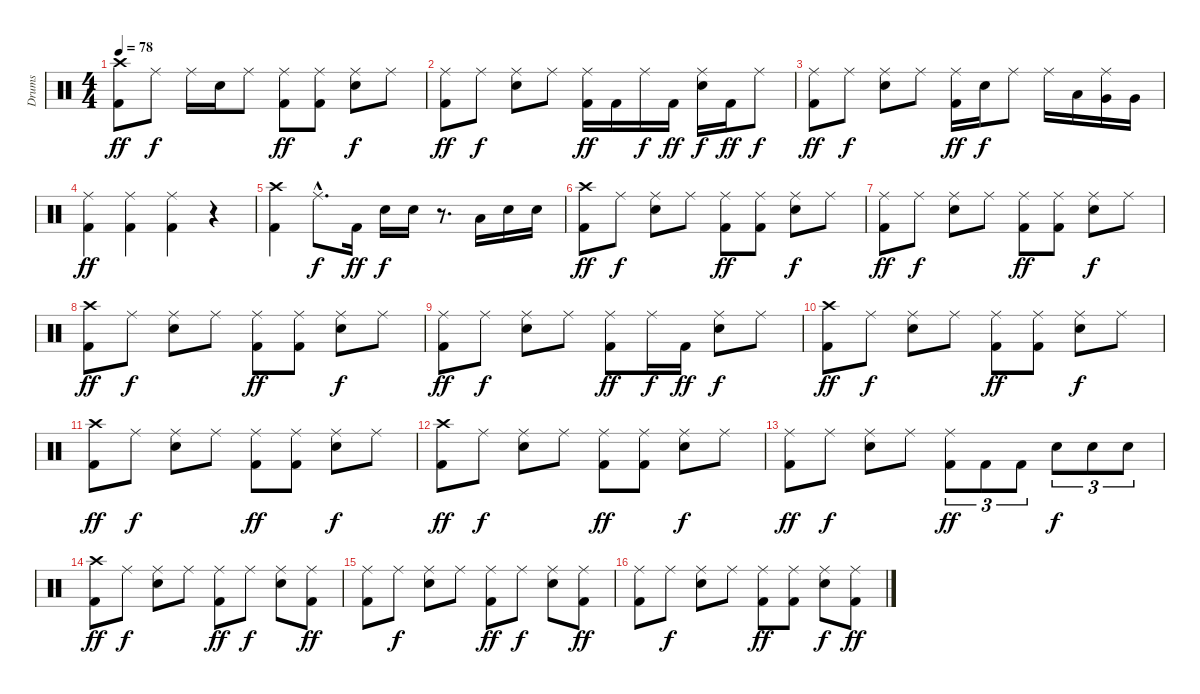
\track ("Drums" "Drums") {instrument percussion}
\staff {score}
\articulation defaults
\ts (4 4)
\tempo 78
\clef neutral
\ks c
("Crash high (hit)" "Kick (hit) 2").8{dy ff} "Ride (middle)".8{dy f} "Ride (middle)".16 "Snare (hit) 2".16 "Ride (middle)".8 ("Ride (middle)" "Kick (hit) 2").8{dy ff} ("Ride (middle)" "Kick (hit) 2").8 ("Ride (middle)" "Snare (hit) 2").8{dy f} "Ride (middle)".8 |
("Ride (middle)" "Kick (hit) 2").8{dy ff} "Ride (middle)".8{dy f} ("Ride (middle)" "Snare (hit) 2").8 "Ride (middle)".8 ("Ride (middle)" "Kick (hit) 2").16{dy ff} "Kick (hit) 2".16 "Ride (middle)".16{dy f} "Kick (hit) 2".16{dy ff} ("Ride (middle)" "Snare (hit) 2").16{dy f} "Kick (hit) 2".16{dy ff} "Ride (middle)".8{dy f} |
("Ride (middle)" "Kick (hit) 2").8{dy ff} "Ride (middle)".8{dy f} ("Ride (middle)" "Snare (hit) 2").8 "Ride (middle)".8 ("Ride (middle)" "Kick (hit) 2").16{dy ff} "Snare (hit) 2".16{dy f} "Ride (middle)".8 "Ride (middle)".16 "Low Tom (hit)".16 ("Ride (middle)" "Very Low Tom (hit)").16 "Very Low Tom (hit)".16 |
("Ride (middle)" "Kick (hit) 2").4{dy ff} ("Ride (middle)" "Kick (hit) 2").4 ("Ride (middle)" "Kick (hit) 2").4 r.4 |
("Crash high (hit)" "Kick (hit) 2").4 "Ride (middle)"{hac}.8{d dy f} "Kick (hit) 2".16{dy ff} "Snare (hit) 2".16{dy f} "Snare (hit) 2".16 r.8{d} "Low Tom (hit)".16 "Snare (hit) 2".16 "Snare (hit) 2".16 |
("Crash high (hit)" "Kick (hit) 2").8{dy ff} "Ride (middle)".8{dy f} ("Ride (middle)" "Snare (hit) 2").8 "Ride (middle)".8 ("Ride (middle)" "Kick (hit) 2").8{dy ff} ("Ride (middle)" "Kick (hit) 2").8 ("Ride (middle)" "Snare (hit) 2").8{dy f} "Ride (middle)".8 |
("Ride (middle)" "Kick (hit) 2").8{dy ff} "Ride (middle)".8{dy f} ("Ride (middle)" "Snare (hit) 2").8 "Ride (middle)".8 ("Ride (middle)" "Kick (hit) 2").8{dy ff} ("Ride (middle)" "Kick (hit) 2").8 ("Ride (middle)" "Snare (hit) 2").8{dy f} "Ride (middle)".8 |
("Crash high (hit)" "Kick (hit) 2").8{dy ff} "Ride (middle)".8{dy f} ("Ride (middle)" "Snare (hit) 2").8 "Ride (middle)".8 ("Ride (middle)" "Kick (hit) 2").8{dy ff} ("Ride (middle)" "Kick (hit) 2").8 ("Ride (middle)" "Snare (hit) 2").8{dy f} "Ride (middle)".8 |
("Ride (middle)" "Kick (hit) 2").8{dy ff} "Ride (middle)".8{dy f} ("Ride (middle)" "Snare (hit) 2").8 "Ride (middle)".8 ("Ride (middle)" "Kick (hit) 2").8{dy ff} "Ride (middle)".16{dy f} "Kick (hit) 2".16{dy ff} ("Ride (middle)" "Snare (hit) 2").8{dy f} "Ride (middle)".8 |
("Crash high (hit)" "Kick (hit) 2").8{dy ff} "Ride (middle)".8{dy f} ("Ride (middle)" "Snare (hit) 2").8 "Ride (middle)".8 ("Ride (middle)" "Kick (hit) 2").8{dy ff} ("Ride (middle)" "Kick (hit) 2").8 ("Ride (middle)" "Snare (hit) 2").8{dy f} "Ride (middle)".8 |
("Crash high (hit)" "Kick (hit) 2").8{dy ff} "Ride (middle)".8{dy f} ("Ride (middle)" "Snare (hit) 2").8 "Ride (middle)".8 ("Ride (middle)" "Kick (hit) 2").8{dy ff} ("Ride (middle)" "Kick (hit) 2").8 ("Ride (middle)" "Snare (hit) 2").8{dy f} "Ride (middle)".8 |
("Crash high (hit)" "Kick (hit) 2").8{dy ff} "Ride (middle)".8{dy f} ("Ride (middle)" "Snare (hit) 2").8 "Ride (middle)".8 ("Ride (middle)" "Kick (hit) 2").8{dy ff} ("Ride (middle)" "Kick (hit) 2").8 ("Ride (middle)" "Snare (hit) 2").8{dy f} "Ride (middle)".8 |
("Ride (middle)" "Kick (hit) 2").8{dy ff} "Ride (middle)".8{dy f} ("Ride (middle)" "Snare (hit) 2").8 "Ride (middle)".8 ("Ride (middle)" "Kick (hit) 2").8{tu (3 2) dy ff} "Kick (hit) 2".8{tu (3 2)} "Kick (hit) 2".8{tu (3 2)} "Snare (hit) 2".8{tu (3 2) dy f} "Snare (hit) 2".8{tu (3 2)} "Snare (hit) 2".8{tu (3 2)} |
("Crash high (hit)" "Kick (hit) 2").8{dy ff} "Ride (middle)".8{dy f} ("Ride (middle)" "Snare (hit) 2").8 "Ride (middle)".8 ("Ride (middle)" "Kick (hit) 2").8{dy ff} "Ride (middle)".8{dy f} ("Ride (middle)" "Snare (hit) 2").8 ("Ride (middle)" "Kick (hit) 2").8{dy ff} |
("Ride (middle)" "Kick (hit) 2").8 "Ride (middle)".8{dy f} ("Ride (middle)" "Snare (hit) 2").8 "Ride (middle)".8 ("Ride (middle)" "Kick (hit) 2").8{dy ff} "Ride (middle)".8{dy f} ("Ride (middle)" "Snare (hit) 2").8 ("Ride (middle)" "Kick (hit) 2").8{dy ff} |
("Ride (middle)" "Kick (hit) 2").8 "Ride (middle)".8{dy f} ("Ride (middle)" "Snare (hit) 2").8 "Ride (middle)".8 ("Ride (middle)" "Kick (hit) 2").8{dy ff} ("Ride (middle)" "Kick (hit) 2").8 ("Ride (middle)" "Snare (hit) 2").8{dy f} ("Ride (middle)" "Kick (hit) 2").8{dy ff}
